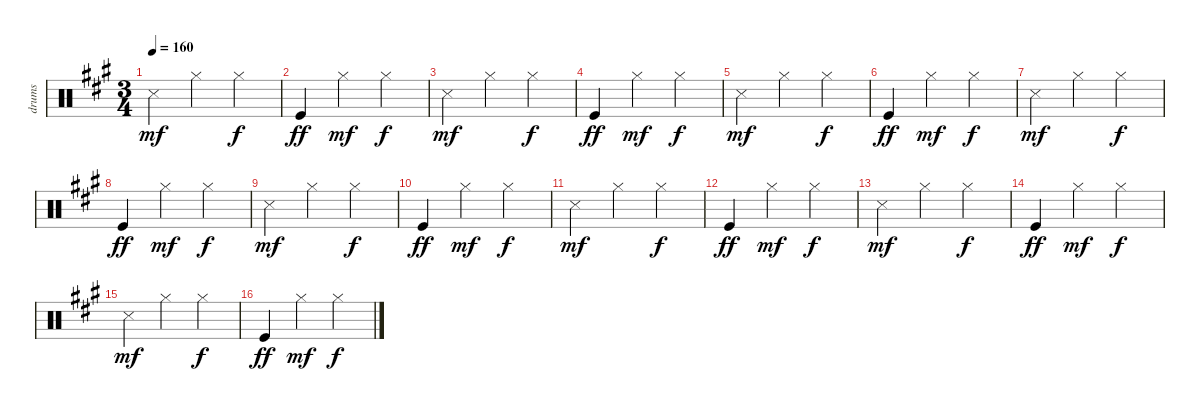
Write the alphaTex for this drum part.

\track ("drums" "drums") {instrument percussion}
\staff {score}
\articulation defaults
\ts (3 4)
\tempo 160
\clef neutral
\ks a "Snare (side stick) 3".4{dy mf} "Hi-Hat (closed)".4 "Hi-Hat (closed)".4{dy f}
|
"Kick (hit)".4{dy ff} "Hi-Hat (closed)".4{dy mf} "Hi-Hat (closed)".4{dy f} |
"Snare (side stick) 3".4{dy mf} "Hi-Hat (closed)".4 "Hi-Hat (closed)".4{dy f} |
"Kick (hit)".4{dy ff} "Hi-Hat (closed)".4{dy mf} "Hi-Hat (closed)".4{dy f} |
"Snare (side stick) 3".4{dy mf} "Hi-Hat (closed)".4 "Hi-Hat (closed)".4{dy f} |
"Kick (hit)".4{dy ff} "Hi-Hat (closed)".4{dy mf} "Hi-Hat (closed)".4{dy f} |
"Snare (side stick) 3".4{dy mf} "Hi-Hat (closed)".4 "Hi-Hat (closed)".4{dy f} |
"Kick (hit)".4{dy ff} "Hi-Hat (closed)".4{dy mf} "Hi-Hat (closed)".4{dy f} |
"Snare (side stick) 3".4{dy mf} "Hi-Hat (closed)".4 "Hi-Hat (closed)".4{dy f} |
"Kick (hit)".4{dy ff} "Hi-Hat (closed)".4{dy mf} "Hi-Hat (closed)".4{dy f} |
"Snare (side stick) 3".4{dy mf} "Hi-Hat (closed)".4 "Hi-Hat (closed)".4{dy f} |
"Kick (hit)".4{dy ff} "Hi-Hat (closed)".4{dy mf} "Hi-Hat (closed)".4{dy f} |
"Snare (side stick) 3".4{dy mf} "Hi-Hat (closed)".4 "Hi-Hat (closed)".4{dy f} |
"Kick (hit)".4{dy ff} "Hi-Hat (closed)".4{dy mf} "Hi-Hat (closed)".4{dy f} |
"Snare (side stick) 3".4{dy mf} "Hi-Hat (closed)".4 "Hi-Hat (closed)".4{dy f} |
"Kick (hit)".4{dy ff} "Hi-Hat (closed)".4{dy mf} "Hi-Hat (closed)".4{dy f}
